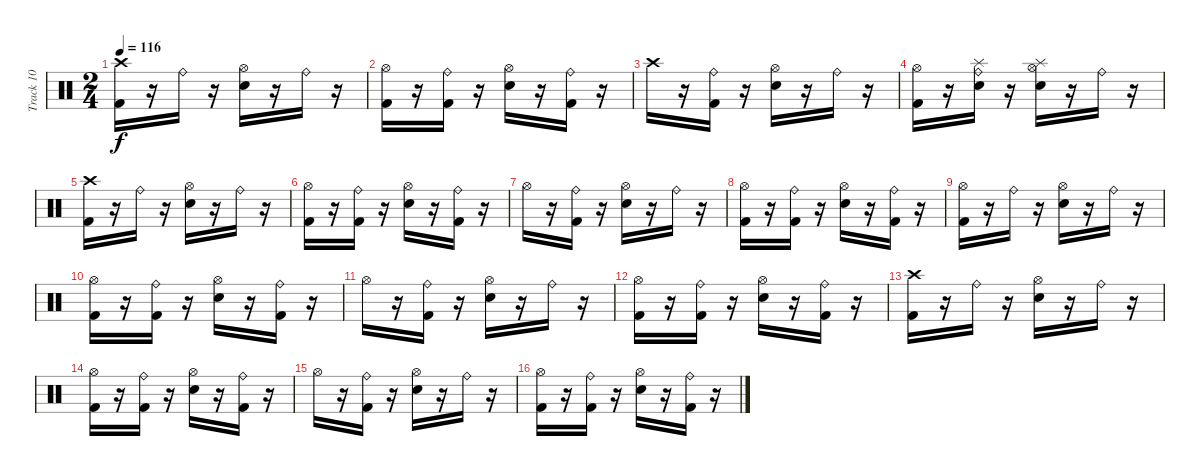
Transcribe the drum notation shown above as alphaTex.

\track ("Track 10" "Track 10") {instrument percussion}
\staff {score}
\articulation defaults
\ts (2 4)
\tempo 116
\clef neutral
\ks c
("Crash high (hit)" "Kick (hit) 2").16{dy f} r.16 "Ride (bell)".16 r.16 ("Electric Snare (hit)" "Hi-Hat (open)").16 r.16 "Ride (bell)".16 r.16 |
("Kick (hit) 2" "Hi-Hat (open)").16 r.16 ("Ride (bell)" "Kick (hit) 2").16 r.16 ("Electric Snare (hit)" "Hi-Hat (open)").16 r.16 ("Kick (hit) 2" "Ride (bell)").16 r.16 |
"Crash high (hit)".16 r.16 ("Kick (hit) 2" "Ride (bell)").16 r.16 ("Hi-Hat (open)" "Electric Snare (hit)").16 r.16 "Ride (bell)".16 r.16 |
("Hi-Hat (open)" "Kick (hit) 2").16 r.16 ("Splash (hit)" "Ride (bell)" "Electric Snare (hit)").16 r.16 ("Splash (hit)" "Hi-Hat (open)" "Electric Snare (hit)").16 r.16 "Ride (bell)".16 r.16 |
("Crash high (hit)" "Kick (hit) 2").16 r.16 "Ride (bell)".16 r.16 ("Hi-Hat (open)" "Electric Snare (hit)").16 r.16 "Ride (bell)".16 r.16 |
("Kick (hit) 2" "Hi-Hat (open)").16 r.16 ("Ride (bell)" "Kick (hit) 2").16 r.16 ("Hi-Hat (open)" "Electric Snare (hit)").16 r.16 ("Kick (hit) 2" "Ride (bell)").16 r.16 |
"Hi-Hat (open)".16 r.16 ("Kick (hit) 2" "Ride (bell)").16 r.16 ("Hi-Hat (open)" "Electric Snare (hit)").16 r.16 "Ride (bell)".16 r.16 |
("Hi-Hat (open)" "Kick (hit) 2").16 r.16 ("Ride (bell)" "Kick (hit) 2").16 r.16 ("Hi-Hat (open)" "Electric Snare (hit)").16 r.16 ("Ride (bell)" "Kick (hit) 2").16 r.16 |
("Kick (hit) 2" "Hi-Hat (open)").16 r.16 "Ride (bell)".16 r.16 ("Hi-Hat (open)" "Electric Snare (hit)").16 r.16 "Ride (bell)".16 r.16 |
("Hi-Hat (open)" "Kick (hit) 2").16 r.16 ("Ride (bell)" "Kick (hit) 2").16 r.16 ("Electric Snare (hit)" "Hi-Hat (open)").16 r.16 ("Kick (hit) 2" "Ride (bell)").16 r.16 |
"Hi-Hat (open)".16 r.16 ("Kick (hit) 2" "Ride (bell)").16 r.16 ("Electric Snare (hit)" "Hi-Hat (open)").16 r.16 "Ride (bell)".16 r.16 |
("Hi-Hat (open)" "Kick (hit) 2").16 r.16 ("Ride (bell)" "Kick (hit) 2").16 r.16 ("Electric Snare (hit)" "Hi-Hat (open)").16 r.16 ("Ride (bell)" "Kick (hit) 2").16 r.16 |
("Crash high (hit)" "Kick (hit) 2").16 r.16 "Ride (bell)".16 r.16 ("Hi-Hat (open)" "Electric Snare (hit)").16 r.16 "Ride (bell)".16 r.16 |
("Hi-Hat (open)" "Kick (hit) 2").16 r.16 ("Ride (bell)" "Kick (hit) 2").16 r.16 ("Hi-Hat (open)" "Electric Snare (hit)").16 r.16 ("Kick (hit) 2" "Ride (bell)").16 r.16 |
"Hi-Hat (open)".16 r.16 ("Kick (hit) 2" "Ride (bell)").16 r.16 ("Electric Snare (hit)" "Hi-Hat (open)").16 r.16 "Ride (bell)".16 r.16 |
("Kick (hit) 2" "Hi-Hat (open)").16 r.16 ("Ride (bell)" "Kick (hit) 2").16 r.16 ("Electric Snare (hit)" "Hi-Hat (open)").16 r.16 ("Ride (bell)" "Kick (hit) 2").16 r.16
